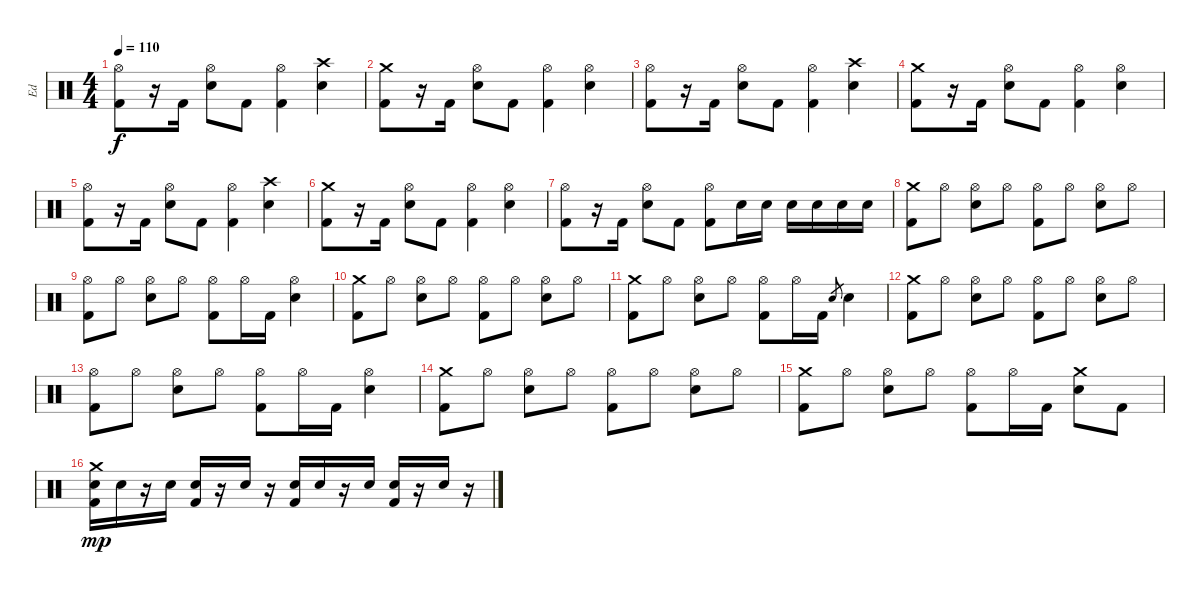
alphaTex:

\track ("Ed" "Ed") {instrument percussion}
\staff {score}
\articulation defaults
\ts (4 4)
\tempo 110
\clef neutral
\ks c
("Hi-Hat (open)" "Kick (hit) 2").8{dy f} r.16 "Kick (hit) 2".16 ("Hi-Hat (open)" "Electric Snare (hit)").8 "Kick (hit) 2".8 ("Hi-Hat (open)" "Kick (hit) 2").4 ("Crash high (hit)" "Electric Snare (hit)").4 |
("Crash medium (hit)" "Kick (hit) 2").8 r.16 "Kick (hit) 2".16 ("Hi-Hat (open)" "Electric Snare (hit)").8 "Kick (hit) 2".8 ("Hi-Hat (open)" "Kick (hit) 2").4 ("Hi-Hat (open)" "Electric Snare (hit)").4 |
("Hi-Hat (open)" "Kick (hit) 2").8 r.16 "Kick (hit) 2".16 ("Hi-Hat (open)" "Electric Snare (hit)").8 "Kick (hit) 2".8 ("Hi-Hat (open)" "Kick (hit) 2").4 ("Crash high (hit)" "Electric Snare (hit)").4 |
("Crash medium (hit)" "Kick (hit) 2").8 r.16 "Kick (hit) 2".16 ("Hi-Hat (open)" "Electric Snare (hit)").8 "Kick (hit) 2".8 ("Hi-Hat (open)" "Kick (hit) 2").4 ("Hi-Hat (open)" "Electric Snare (hit)").4 |
("Hi-Hat (open)" "Kick (hit) 2").8 r.16 "Kick (hit) 2".16 ("Hi-Hat (open)" "Electric Snare (hit)").8 "Kick (hit) 2".8 ("Hi-Hat (open)" "Kick (hit) 2").4 ("Crash high (hit)" "Electric Snare (hit)").4 |
("Crash medium (hit)" "Kick (hit) 2").8 r.16 "Kick (hit) 2".16 ("Hi-Hat (open)" "Electric Snare (hit)").8 "Kick (hit) 2".8 ("Hi-Hat (open)" "Kick (hit) 2").4 ("Hi-Hat (open)" "Electric Snare (hit)").4 |
("Hi-Hat (open)" "Kick (hit) 2").8 r.16 "Kick (hit) 2".16 ("Hi-Hat (open)" "Electric Snare (hit)").8 "Kick (hit) 2".8 ("Hi-Hat (open)" "Kick (hit) 2").8 "Electric Snare (hit)".16 "Electric Snare (hit)".16 "Electric Snare (hit)".16 "Electric Snare (hit)".16 "Electric Snare (hit)".16 "Electric Snare (hit)".16 |
("Crash medium (hit)" "Kick (hit) 2").8 "Hi-Hat (open)".8 ("Hi-Hat (open)" "Electric Snare (hit)").8 "Hi-Hat (open)".8 ("Hi-Hat (open)" "Kick (hit) 2").8 "Hi-Hat (open)".8 ("Hi-Hat (open)" "Electric Snare (hit)").8 "Hi-Hat (open)".8 |
("Hi-Hat (open)" "Kick (hit) 2").8 "Hi-Hat (open)".8 ("Hi-Hat (open)" "Electric Snare (hit)").8 "Hi-Hat (open)".8 ("Hi-Hat (open)" "Kick (hit) 2").8 "Hi-Hat (open)".16 "Kick (hit) 2".16 ("Hi-Hat (open)" "Electric Snare (hit)").4 |
("Crash medium (hit)" "Kick (hit) 2").8 "Hi-Hat (open)".8 ("Hi-Hat (open)" "Electric Snare (hit)").8 "Hi-Hat (open)".8 ("Hi-Hat (open)" "Kick (hit) 2").8 "Hi-Hat (open)".8 ("Hi-Hat (open)" "Electric Snare (hit)").8 "Hi-Hat (open)".8 |
("Crash medium (hit)" "Kick (hit) 2").8 "Hi-Hat (open)".8 ("Hi-Hat (open)" "Electric Snare (hit)").8 "Hi-Hat (open)".8 ("Hi-Hat (open)" "Kick (hit) 2").8 "Hi-Hat (open)".16 "Kick (hit) 2".16 "Electric Snare (hit)".8{gr} "Electric Snare (hit)".4 |
("Crash medium (hit)" "Kick (hit) 2").8 "Hi-Hat (open)".8 ("Hi-Hat (open)" "Electric Snare (hit)").8 "Hi-Hat (open)".8 ("Hi-Hat (open)" "Kick (hit) 2").8 "Hi-Hat (open)".8 ("Hi-Hat (open)" "Electric Snare (hit)").8 "Hi-Hat (open)".8 |
("Hi-Hat (open)" "Kick (hit) 2").8 "Hi-Hat (open)".8 ("Hi-Hat (open)" "Electric Snare (hit)").8 "Hi-Hat (open)".8 ("Hi-Hat (open)" "Kick (hit) 2").8 "Hi-Hat (open)".16 "Kick (hit) 2".16 ("Hi-Hat (open)" "Electric Snare (hit)").4 |
("Crash medium (hit)" "Kick (hit) 2").8 "Hi-Hat (open)".8 ("Hi-Hat (open)" "Electric Snare (hit)").8 "Hi-Hat (open)".8 ("Hi-Hat (open)" "Kick (hit) 2").8 "Hi-Hat (open)".8 ("Hi-Hat (open)" "Electric Snare (hit)").8 "Hi-Hat (open)".8 |
("Crash medium (hit)" "Kick (hit) 2").8 "Hi-Hat (open)".8 ("Hi-Hat (open)" "Electric Snare (hit)").8 "Hi-Hat (open)".8 ("Hi-Hat (open)" "Kick (hit) 2").8 "Hi-Hat (open)".16 "Kick (hit) 2".16 ("Crash medium (hit)" "Electric Snare (hit)").8 "Kick (hit) 2".8 |
("Crash medium (hit)" "Electric Snare (hit)" "Kick (hit) 2").16{dy mp} "Electric Snare (hit)".16 r.16 "Electric Snare (hit)".16 ("Electric Snare (hit)" "Kick (hit) 2").16 r.16 "Electric Snare (hit)".16 r.16 ("Electric Snare (hit)" "Kick (hit) 2").16 "Electric Snare (hit)".16 r.16 "Electric Snare (hit)".16 ("Electric Snare (hit)" "Kick (hit) 2").16 r.16 "Electric Snare (hit)".16 r.16
